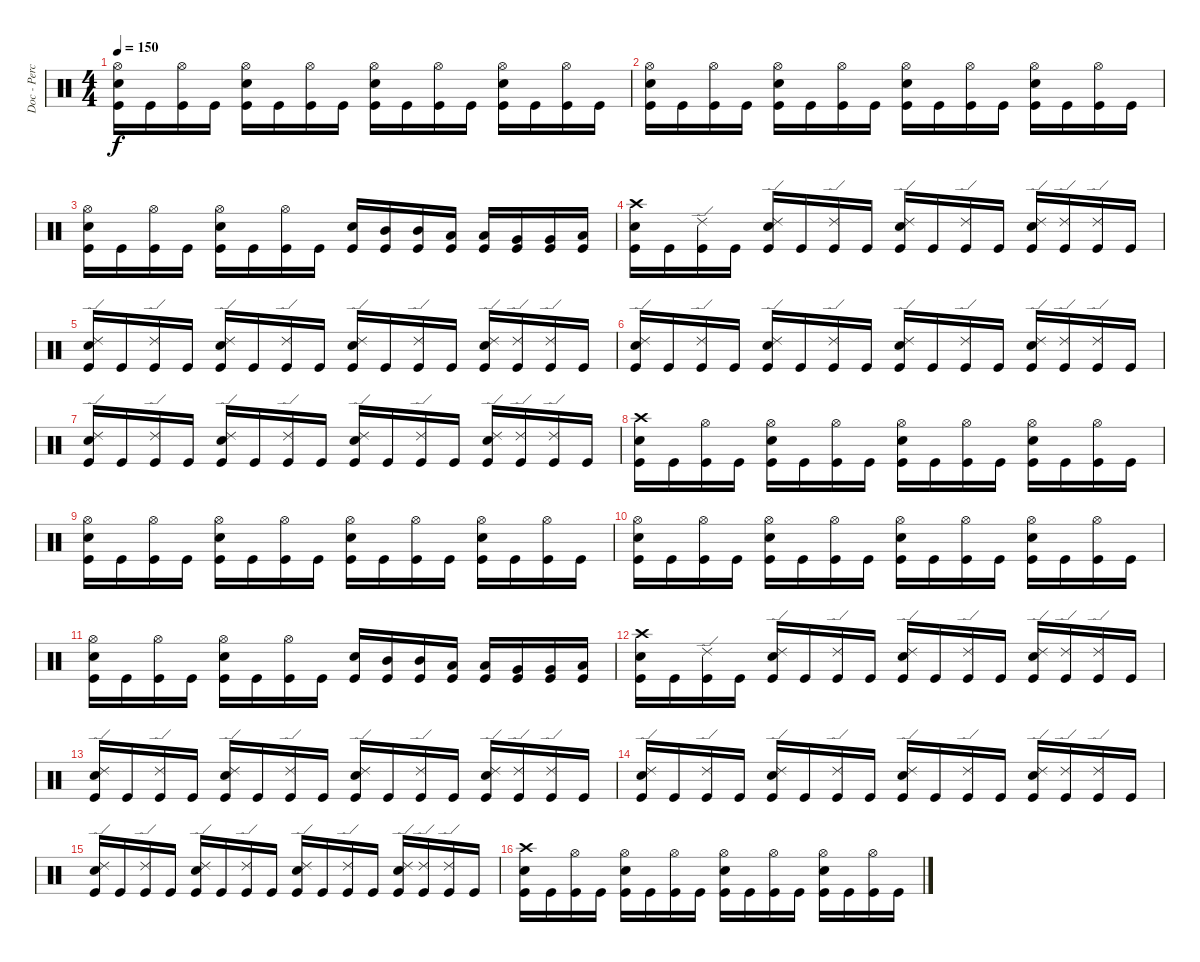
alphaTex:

\track ("Doc - Percussion" "Doc - Perc") {instrument percussion}
\staff {score}
\articulation defaults
\ts (4 4)
\tempo 150
\clef neutral
\ks c
("Hi-Hat (open)" "Electric Snare (hit)" "Kick (hit)").16{dy f} "Kick (hit)".16 ("Hi-Hat (open)" "Kick (hit)").16 "Kick (hit)".16 ("Hi-Hat (open)" "Electric Snare (hit)" "Kick (hit)").16 "Kick (hit)".16 ("Hi-Hat (open)" "Kick (hit)").16 "Kick (hit)".16 ("Hi-Hat (open)" "Electric Snare (hit)" "Kick (hit)").16 "Kick (hit)".16 ("Hi-Hat (open)" "Kick (hit)").16 "Kick (hit)".16 ("Hi-Hat (open)" "Electric Snare (hit)" "Kick (hit)").16 "Kick (hit)".16 ("Hi-Hat (open)" "Kick (hit)").16 "Kick (hit)".16 |
("Hi-Hat (open)" "Electric Snare (hit)" "Kick (hit)").16 "Kick (hit)".16 ("Hi-Hat (open)" "Kick (hit)").16 "Kick (hit)".16 ("Hi-Hat (open)" "Electric Snare (hit)" "Kick (hit)").16 "Kick (hit)".16 ("Hi-Hat (open)" "Kick (hit)").16 "Kick (hit)".16 ("Hi-Hat (open)" "Electric Snare (hit)" "Kick (hit)").16 "Kick (hit)".16 ("Hi-Hat (open)" "Kick (hit)").16 "Kick (hit)".16 ("Hi-Hat (open)" "Electric Snare (hit)" "Kick (hit)").16 "Kick (hit)".16 ("Hi-Hat (open)" "Kick (hit)").16 "Kick (hit)".16 |
("Hi-Hat (open)" "Electric Snare (hit)" "Kick (hit)").16 "Kick (hit)".16 ("Hi-Hat (open)" "Kick (hit)").16 "Kick (hit)".16 ("Hi-Hat (open)" "Electric Snare (hit)" "Kick (hit)").16 "Kick (hit)".16 ("Hi-Hat (open)" "Kick (hit)").16 "Kick (hit)".16 ("Electric Snare (hit)" "Kick (hit)").16 ("Mid Tom (hit)" "Kick (hit)").16 ("Mid Tom (hit)" "Kick (hit)").16 ("Low Tom (hit)" "Kick (hit)").16 ("Low Tom (hit)" "Kick (hit)").16 ("Very Low Tom (hit)" "Kick (hit)").16 ("Very Low Tom (hit)" "Kick (hit)").16 ("Low Floor Tom (hit)" "Kick (hit)").16 |
("Crash high (hit)" "Electric Snare (hit)" "Kick (hit)").16 "Kick (hit)".16 ("Ride (edge) 2" "Kick (hit)").16 "Kick (hit)".16 ("Ride (edge) 2" "Electric Snare (hit)" "Kick (hit)").16 "Kick (hit)".16 ("Ride (edge) 2" "Kick (hit)").16 "Kick (hit)".16 ("Ride (edge) 2" "Electric Snare (hit)" "Kick (hit)").16 "Kick (hit)".16 ("Ride (edge) 2" "Kick (hit)").16 "Kick (hit)".16 ("Ride (edge) 2" "Electric Snare (hit)" "Kick (hit)").16 ("Ride (edge) 2" "Kick (hit)").16 ("Ride (edge) 2" "Kick (hit)").16 "Kick (hit)".16 |
("Ride (edge) 2" "Electric Snare (hit)" "Kick (hit)").16 "Kick (hit)".16 ("Ride (edge) 2" "Kick (hit)").16 "Kick (hit)".16 ("Ride (edge) 2" "Electric Snare (hit)" "Kick (hit)").16 "Kick (hit)".16 ("Ride (edge) 2" "Kick (hit)").16 "Kick (hit)".16 ("Ride (edge) 2" "Electric Snare (hit)" "Kick (hit)").16 "Kick (hit)".16 ("Ride (edge) 2" "Kick (hit)").16 "Kick (hit)".16 ("Ride (edge) 2" "Electric Snare (hit)" "Kick (hit)").16 ("Ride (edge) 2" "Kick (hit)").16 ("Ride (edge) 2" "Kick (hit)").16 "Kick (hit)".16 |
("Ride (edge) 2" "Electric Snare (hit)" "Kick (hit)").16 "Kick (hit)".16 ("Ride (edge) 2" "Kick (hit)").16 "Kick (hit)".16 ("Ride (edge) 2" "Electric Snare (hit)" "Kick (hit)").16 "Kick (hit)".16 ("Ride (edge) 2" "Kick (hit)").16 "Kick (hit)".16 ("Ride (edge) 2" "Electric Snare (hit)" "Kick (hit)").16 "Kick (hit)".16 ("Ride (edge) 2" "Kick (hit)").16 "Kick (hit)".16 ("Ride (edge) 2" "Electric Snare (hit)" "Kick (hit)").16 ("Ride (edge) 2" "Kick (hit)").16 ("Ride (edge) 2" "Kick (hit)").16 "Kick (hit)".16 |
("Ride (edge) 2" "Electric Snare (hit)" "Kick (hit)").16 "Kick (hit)".16 ("Ride (edge) 2" "Kick (hit)").16 "Kick (hit)".16 ("Ride (edge) 2" "Electric Snare (hit)" "Kick (hit)").16 "Kick (hit)".16 ("Ride (edge) 2" "Kick (hit)").16 "Kick (hit)".16 ("Ride (edge) 2" "Electric Snare (hit)" "Kick (hit)").16 "Kick (hit)".16 ("Ride (edge) 2" "Kick (hit)").16 "Kick (hit)".16 ("Ride (edge) 2" "Electric Snare (hit)" "Kick (hit)").16 ("Ride (edge) 2" "Kick (hit)").16 ("Ride (edge) 2" "Kick (hit)").16 "Kick (hit)".16 |
("Crash high (hit)" "Electric Snare (hit)" "Kick (hit)").16 "Kick (hit)".16 ("Hi-Hat (open)" "Kick (hit)").16 "Kick (hit)".16 ("Hi-Hat (open)" "Electric Snare (hit)" "Kick (hit)").16 "Kick (hit)".16 ("Hi-Hat (open)" "Kick (hit)").16 "Kick (hit)".16 ("Hi-Hat (open)" "Electric Snare (hit)" "Kick (hit)").16 "Kick (hit)".16 ("Hi-Hat (open)" "Kick (hit)").16 "Kick (hit)".16 ("Hi-Hat (open)" "Electric Snare (hit)" "Kick (hit)").16 "Kick (hit)".16 ("Hi-Hat (open)" "Kick (hit)").16 "Kick (hit)".16 |
("Hi-Hat (open)" "Electric Snare (hit)" "Kick (hit)").16 "Kick (hit)".16 ("Hi-Hat (open)" "Kick (hit)").16 "Kick (hit)".16 ("Hi-Hat (open)" "Electric Snare (hit)" "Kick (hit)").16 "Kick (hit)".16 ("Hi-Hat (open)" "Kick (hit)").16 "Kick (hit)".16 ("Hi-Hat (open)" "Electric Snare (hit)" "Kick (hit)").16 "Kick (hit)".16 ("Hi-Hat (open)" "Kick (hit)").16 "Kick (hit)".16 ("Hi-Hat (open)" "Electric Snare (hit)" "Kick (hit)").16 "Kick (hit)".16 ("Hi-Hat (open)" "Kick (hit)").16 "Kick (hit)".16 |
("Hi-Hat (open)" "Electric Snare (hit)" "Kick (hit)").16 "Kick (hit)".16 ("Hi-Hat (open)" "Kick (hit)").16 "Kick (hit)".16 ("Hi-Hat (open)" "Electric Snare (hit)" "Kick (hit)").16 "Kick (hit)".16 ("Hi-Hat (open)" "Kick (hit)").16 "Kick (hit)".16 ("Hi-Hat (open)" "Electric Snare (hit)" "Kick (hit)").16 "Kick (hit)".16 ("Hi-Hat (open)" "Kick (hit)").16 "Kick (hit)".16 ("Hi-Hat (open)" "Electric Snare (hit)" "Kick (hit)").16 "Kick (hit)".16 ("Hi-Hat (open)" "Kick (hit)").16 "Kick (hit)".16 |
("Hi-Hat (open)" "Electric Snare (hit)" "Kick (hit)").16 "Kick (hit)".16 ("Hi-Hat (open)" "Kick (hit)").16 "Kick (hit)".16 ("Hi-Hat (open)" "Electric Snare (hit)" "Kick (hit)").16 "Kick (hit)".16 ("Hi-Hat (open)" "Kick (hit)").16 "Kick (hit)".16 ("Electric Snare (hit)" "Kick (hit)").16 ("Mid Tom (hit)" "Kick (hit)").16 ("Mid Tom (hit)" "Kick (hit)").16 ("Low Tom (hit)" "Kick (hit)").16 ("Low Tom (hit)" "Kick (hit)").16 ("Very Low Tom (hit)" "Kick (hit)").16 ("Very Low Tom (hit)" "Kick (hit)").16 ("Low Floor Tom (hit)" "Kick (hit)").16 |
("Crash high (hit)" "Electric Snare (hit)" "Kick (hit)").16 "Kick (hit)".16 ("Ride (edge) 2" "Kick (hit)").16 "Kick (hit)".16 ("Ride (edge) 2" "Electric Snare (hit)" "Kick (hit)").16 "Kick (hit)".16 ("Ride (edge) 2" "Kick (hit)").16 "Kick (hit)".16 ("Ride (edge) 2" "Electric Snare (hit)" "Kick (hit)").16 "Kick (hit)".16 ("Ride (edge) 2" "Kick (hit)").16 "Kick (hit)".16 ("Ride (edge) 2" "Electric Snare (hit)" "Kick (hit)").16 ("Ride (edge) 2" "Kick (hit)").16 ("Ride (edge) 2" "Kick (hit)").16 "Kick (hit)".16 |
("Ride (edge) 2" "Electric Snare (hit)" "Kick (hit)").16 "Kick (hit)".16 ("Ride (edge) 2" "Kick (hit)").16 "Kick (hit)".16 ("Ride (edge) 2" "Electric Snare (hit)" "Kick (hit)").16 "Kick (hit)".16 ("Ride (edge) 2" "Kick (hit)").16 "Kick (hit)".16 ("Ride (edge) 2" "Electric Snare (hit)" "Kick (hit)").16 "Kick (hit)".16 ("Ride (edge) 2" "Kick (hit)").16 "Kick (hit)".16 ("Ride (edge) 2" "Electric Snare (hit)" "Kick (hit)").16 ("Ride (edge) 2" "Kick (hit)").16 ("Ride (edge) 2" "Kick (hit)").16 "Kick (hit)".16 |
("Ride (edge) 2" "Electric Snare (hit)" "Kick (hit)").16 "Kick (hit)".16 ("Ride (edge) 2" "Kick (hit)").16 "Kick (hit)".16 ("Ride (edge) 2" "Electric Snare (hit)" "Kick (hit)").16 "Kick (hit)".16 ("Ride (edge) 2" "Kick (hit)").16 "Kick (hit)".16 ("Ride (edge) 2" "Electric Snare (hit)" "Kick (hit)").16 "Kick (hit)".16 ("Ride (edge) 2" "Kick (hit)").16 "Kick (hit)".16 ("Ride (edge) 2" "Electric Snare (hit)" "Kick (hit)").16 ("Ride (edge) 2" "Kick (hit)").16 ("Ride (edge) 2" "Kick (hit)").16 "Kick (hit)".16 |
("Ride (edge) 2" "Electric Snare (hit)" "Kick (hit)").16 "Kick (hit)".16 ("Ride (edge) 2" "Kick (hit)").16 "Kick (hit)".16 ("Ride (edge) 2" "Electric Snare (hit)" "Kick (hit)").16 "Kick (hit)".16 ("Ride (edge) 2" "Kick (hit)").16 "Kick (hit)".16 ("Ride (edge) 2" "Electric Snare (hit)" "Kick (hit)").16 "Kick (hit)".16 ("Ride (edge) 2" "Kick (hit)").16 "Kick (hit)".16 ("Ride (edge) 2" "Electric Snare (hit)" "Kick (hit)").16 ("Ride (edge) 2" "Kick (hit)").16 ("Ride (edge) 2" "Kick (hit)").16 "Kick (hit)".16 |
("Crash high (hit)" "Electric Snare (hit)" "Kick (hit)").16 "Kick (hit)".16 ("Hi-Hat (open)" "Kick (hit)").16 "Kick (hit)".16 ("Hi-Hat (open)" "Electric Snare (hit)" "Kick (hit)").16 "Kick (hit)".16 ("Hi-Hat (open)" "Kick (hit)").16 "Kick (hit)".16 ("Hi-Hat (open)" "Electric Snare (hit)" "Kick (hit)").16 "Kick (hit)".16 ("Hi-Hat (open)" "Kick (hit)").16 "Kick (hit)".16 ("Hi-Hat (open)" "Electric Snare (hit)" "Kick (hit)").16 "Kick (hit)".16 ("Hi-Hat (open)" "Kick (hit)").16 "Kick (hit)".16
